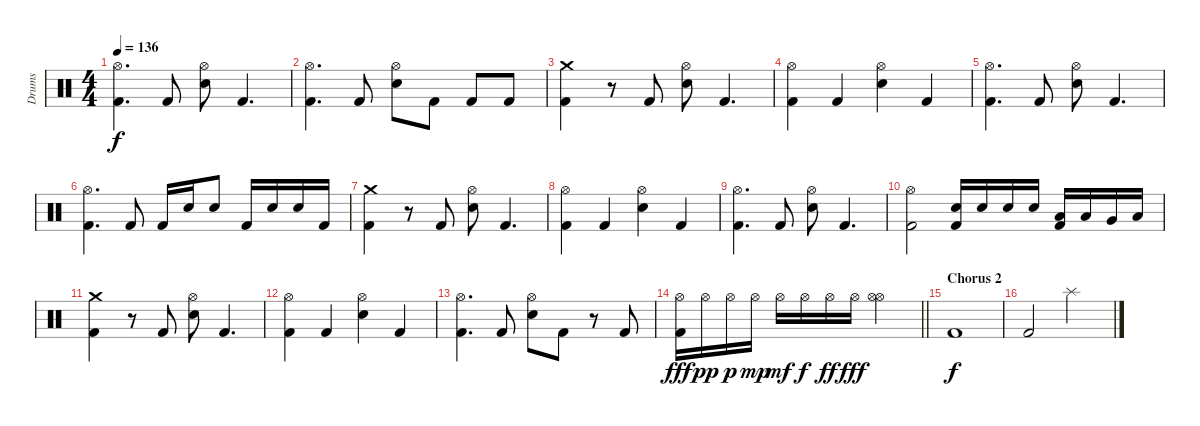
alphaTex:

\track ("Drums" "Drums") {instrument percussion}
\staff {score}
\articulation defaults
\ts (4 4)
\tempo 136
\clef neutral
\ks c
("Hi-Hat (open)" "Kick (hit) 2").4{d dy f} "Kick (hit) 2".8 ("Hi-Hat (open)" "Snare (hit) 2").8 "Kick (hit) 2".4{d} |
("Hi-Hat (open)" "Kick (hit) 2").4{d} "Kick (hit) 2".8 ("Hi-Hat (open)" "Snare (hit) 2").8 "Kick (hit) 2".8 "Kick (hit) 2".8 "Kick (hit) 2".8 |
("Crash medium (hit)" "Kick (hit) 2").4 r.8 "Kick (hit) 2".8 ("Hi-Hat (open)" "Snare (hit) 2").8 "Kick (hit) 2".4{d} |
("Hi-Hat (open)" "Kick (hit) 2").4 "Kick (hit) 2".4 ("Hi-Hat (open)" "Snare (hit) 2").4 "Kick (hit) 2".4 |
("Hi-Hat (open)" "Kick (hit) 2").4{d} "Kick (hit) 2".8 ("Hi-Hat (open)" "Snare (hit) 2").8 "Kick (hit) 2".4{d} |
("Hi-Hat (open)" "Kick (hit) 2").4{d} "Kick (hit) 2".8 "Kick (hit) 2".16 "Snare (hit) 2".16 "Snare (hit) 2".8 "Kick (hit) 2".16 "Snare (hit) 2".16 "Snare (hit) 2".16 "Kick (hit) 2".16 |
("Crash medium (hit)" "Kick (hit) 2").4 r.8 "Kick (hit) 2".8 ("Hi-Hat (open)" "Snare (hit) 2").8 "Kick (hit) 2".4{d} |
("Hi-Hat (open)" "Kick (hit) 2").4 "Kick (hit) 2".4 ("Hi-Hat (open)" "Snare (hit) 2").4 "Kick (hit) 2".4 |
("Hi-Hat (open)" "Kick (hit) 2").4{d} "Kick (hit) 2".8 ("Hi-Hat (open)" "Snare (hit) 2").8 "Kick (hit) 2".4{d} |
("Hi-Hat (open)" "Kick (hit) 2").2 ("Snare (hit) 2" "Kick (hit) 2").16 "Snare (hit) 2".16 "Snare (hit) 2".16 "Snare (hit) 2".16 ("Low Tom (hit)" "Kick (hit) 2").16 "Low Tom (hit)".16 "Very Low Tom (hit)".16 "Low Floor Tom (hit)".16 |
("Crash medium (hit)" "Kick (hit) 2").4 r.8 "Kick (hit) 2".8 ("Hi-Hat (open)" "Snare (hit) 2").8 "Kick (hit) 2".4{d} |
("Hi-Hat (open)" "Kick (hit) 2").4 "Kick (hit) 2".4 ("Hi-Hat (open)" "Snare (hit) 2").4 "Kick (hit) 2".4 |
("Hi-Hat (open)" "Kick (hit) 2").4{d} "Kick (hit) 2".8 ("Hi-Hat (open)" "Snare (hit) 2").8 "Kick (hit) 2".8 r.8 "Kick (hit) 2".8 |
\barLineRight lightlight
("Hi-Hat (open)" "Kick (hit) 2").16{dy fff} "Hi-Hat (open)".16{dy pp} "Hi-Hat (open)".16{dy p} "Hi-Hat (open)".16{dy mp} "Hi-Hat (open)".16{dy mf} "Hi-Hat (open)".16{dy f} "Hi-Hat (open)".16{dy ff} "Hi-Hat (open)".16{dy fff} ("Hi-Hat (open)" "Hi-Hat (open)").2 |
\section ("" "Chorus 2")
"Kick (hit) 2".1{dy f} |
"Kick (hit) 2".2 "Splash (hit)".2
